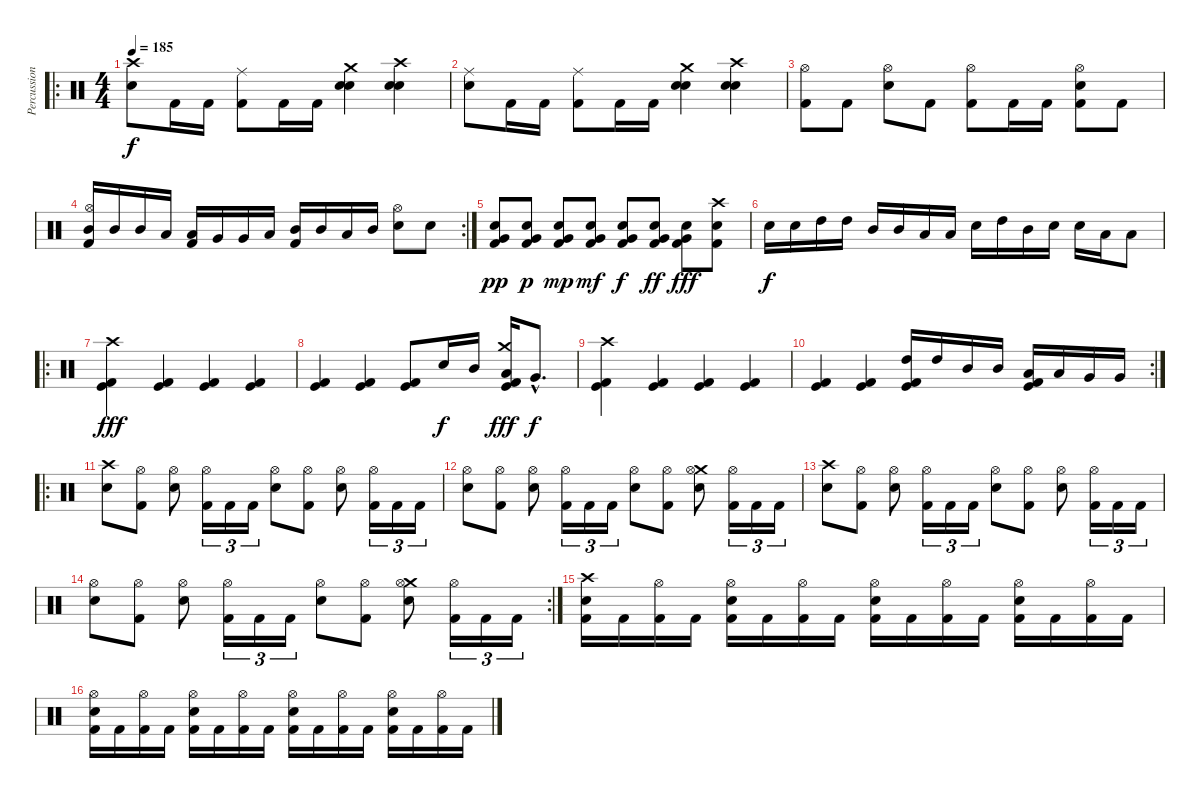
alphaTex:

\track ("Percussion" "Percussion") {instrument percussion}
\staff {score}
\articulation defaults
\ro
\ts (4 4)
\tempo 185
\clef neutral
\ks c
("Crash high (hit)" "Electric Snare (hit)").8{dy f} "Kick (hit) 2".16 "Kick (hit) 2".16 ("Ride (middle)" "Kick (hit) 2").8 "Kick (hit) 2".16 "Kick (hit) 2".16 ("Crash medium (hit)" "Electric Snare (hit)" "Snare (hit) 2").4 ("Crash high (hit)" "Electric Snare (hit)" "Snare (hit) 2").4 |
("Ride (middle)" "Electric Snare (hit)").8 "Kick (hit) 2".16 "Kick (hit) 2".16 ("Ride (middle)" "Kick (hit) 2").8 "Kick (hit) 2".16 "Kick (hit) 2".16 ("Crash medium (hit)" "Electric Snare (hit)" "Snare (hit) 2").4 ("Crash high (hit)" "Electric Snare (hit)" "Snare (hit) 2").4 |
("Hi-Hat (open)" "Kick (hit) 2").8 "Kick (hit) 2".8 ("Hi-Hat (open)" "Electric Snare (hit)").8 "Kick (hit) 2".8 ("Hi-Hat (open)" "Kick (hit) 2").8 "Kick (hit) 2".16 "Kick (hit) 2".16 ("Hi-Hat (open)" "Electric Snare (hit)" "Kick (hit) 2").8 "Kick (hit) 2".8 |
\rc 2
("Hi-Hat (open)" "Mid Tom (hit)" "Kick (hit) 2").16 "Mid Tom (hit)".16 "Mid Tom (hit)".16 "Low Tom (hit)".16 ("Low Tom (hit)" "Kick (hit) 2").16 "Very Low Tom (hit)".16 "Very Low Tom (hit)".16 "Low Tom (hit)".16 ("Mid Tom (hit)" "Kick (hit) 2").16 "Mid Tom (hit)".16 "Low Tom (hit)".16 "Mid Tom (hit)".16 ("Hi-Hat (open)" "Electric Snare (hit)").8 "Electric Snare (hit)".8 |
("Very Low Tom (hit)" "Electric Snare (hit)" "Kick (hit) 2").8{dy pp} ("Very Low Tom (hit)" "Electric Snare (hit)" "Kick (hit) 2").8{dy p} ("Very Low Tom (hit)" "Electric Snare (hit)" "Kick (hit) 2").8{dy mp} ("Very Low Tom (hit)" "Electric Snare (hit)" "Kick (hit) 2").8{dy mf} ("Very Low Tom (hit)" "Electric Snare (hit)" "Kick (hit) 2").8{dy f} ("Very Low Tom (hit)" "Electric Snare (hit)" "Kick (hit) 2").8{dy ff} ("Very Low Tom (hit)" "Electric Snare (hit)" "Kick (hit) 2").8{dy fff} ("Crash high (hit)" "Electric Snare (hit)" "Kick (hit) 2").8 |
"Electric Snare (hit)".16{dy f} "Electric Snare (hit)".16 "High Tom (hit)".16 "High Tom (hit)".16 "Mid Tom (hit)".16 "Mid Tom (hit)".16 "Low Tom (hit)".16 "Low Tom (hit)".16 "Electric Snare (hit)".16 "High Tom (hit)".16 "Mid Tom (hit)".16 "Electric Snare (hit)".16 "Electric Snare (hit)".16 "Low Tom (hit)".16 "Low Tom (hit)".8 |
\ro
("Crash high (hit)" "Kick (hit)" "Kick (hit) 2").4{dy fff} ("Kick (hit)" "Kick (hit) 2").4 ("Kick (hit)" "Kick (hit) 2").4 ("Kick (hit)" "Kick (hit) 2").4 |
("Kick (hit)" "Kick (hit) 2").4 ("Kick (hit)" "Kick (hit) 2").4 ("Kick (hit)" "Kick (hit) 2").8 "Electric Snare (hit)".16{dy f} "Mid Tom (hit)".16 ("Crash medium (hit)" "Kick (hit)" "Low Tom (hit)" "Kick (hit) 2").16{dy fff} "Very Low Tom (hit)"{hac}.8{d dy f} |
("Crash high (hit)" "Kick (hit)" "Kick (hit) 2").4 ("Kick (hit)" "Kick (hit) 2").4 ("Kick (hit)" "Kick (hit) 2").4 ("Kick (hit) 2" "Kick (hit)").4 |
\rc 2
("Kick (hit)" "Kick (hit) 2").4 ("Kick (hit)" "Kick (hit) 2").4 ("Kick (hit)" "High Tom (hit)" "Kick (hit) 2").16 "High Tom (hit)".16 "Mid Tom (hit)".16 "Mid Tom (hit)".16 ("Kick (hit)" "Low Tom (hit)" "Kick (hit) 2").16 "Low Tom (hit)".16 "Very Low Tom (hit)".16 "Very Low Tom (hit)".16 |
\ro
("Crash high (hit)" "Electric Snare (hit)").8 ("Hi-Hat (open)" "Kick (hit) 2").8 ("Hi-Hat (open)" "Electric Snare (hit)").8 ("Hi-Hat (open)" "Kick (hit) 2").16{tu (3 2)} "Kick (hit) 2".16{tu (3 2)} "Kick (hit) 2".16{tu (3 2)} ("Hi-Hat (open)" "Electric Snare (hit)").8 ("Hi-Hat (open)" "Kick (hit) 2").8 ("Hi-Hat (open)" "Electric Snare (hit)").8 ("Hi-Hat (open)" "Kick (hit) 2").16{tu (3 2)} "Kick (hit) 2".16{tu (3 2)} "Kick (hit) 2".16{tu (3 2)} |
("Hi-Hat (open)" "Electric Snare (hit)").8 ("Hi-Hat (open)" "Kick (hit) 2").8 ("Hi-Hat (open)" "Electric Snare (hit)").8 ("Hi-Hat (open)" "Kick (hit) 2").16{tu (3 2)} "Kick (hit) 2".16{tu (3 2)} "Kick (hit) 2".16{tu (3 2)} ("Hi-Hat (open)" "Electric Snare (hit)").8 ("Hi-Hat (open)" "Kick (hit) 2").8 ("Crash medium (hit)" "Hi-Hat (open)" "Electric Snare (hit)").8 ("Hi-Hat (open)" "Kick (hit) 2").16{tu (3 2)} "Kick (hit) 2".16{tu (3 2)} "Kick (hit) 2".16{tu (3 2)} |
("Crash high (hit)" "Electric Snare (hit)").8 ("Hi-Hat (open)" "Kick (hit) 2").8 ("Hi-Hat (open)" "Electric Snare (hit)").8 ("Hi-Hat (open)" "Kick (hit) 2").16{tu (3 2)} "Kick (hit) 2".16{tu (3 2)} "Kick (hit) 2".16{tu (3 2)} ("Hi-Hat (open)" "Electric Snare (hit)").8 ("Hi-Hat (open)" "Kick (hit) 2").8 ("Hi-Hat (open)" "Electric Snare (hit)").8 ("Hi-Hat (open)" "Kick (hit) 2").16{tu (3 2)} "Kick (hit) 2".16{tu (3 2)} "Kick (hit) 2".16{tu (3 2)} |
\rc 2
("Hi-Hat (open)" "Electric Snare (hit)").8 ("Hi-Hat (open)" "Kick (hit) 2").8 ("Hi-Hat (open)" "Electric Snare (hit)").8 ("Hi-Hat (open)" "Kick (hit) 2").16{tu (3 2)} "Kick (hit) 2".16{tu (3 2)} "Kick (hit) 2".16{tu (3 2)} ("Hi-Hat (open)" "Electric Snare (hit)").8 ("Hi-Hat (open)" "Kick (hit) 2").8 ("Crash medium (hit)" "Hi-Hat (open)" "Electric Snare (hit)").8 ("Hi-Hat (open)" "Kick (hit) 2").16{tu (3 2)} "Kick (hit) 2".16{tu (3 2)} "Kick (hit) 2".16{tu (3 2)} |
("Crash high (hit)" "Electric Snare (hit)" "Kick (hit) 2").16 "Kick (hit) 2".16 ("Hi-Hat (open)" "Kick (hit) 2").16 "Kick (hit) 2".16 ("Hi-Hat (open)" "Electric Snare (hit)" "Kick (hit) 2").16 "Kick (hit) 2".16 ("Hi-Hat (open)" "Kick (hit) 2").16 "Kick (hit) 2".16 ("Hi-Hat (open)" "Electric Snare (hit)" "Kick (hit) 2").16 "Kick (hit) 2".16 ("Hi-Hat (open)" "Kick (hit) 2").16 "Kick (hit) 2".16 ("Hi-Hat (open)" "Electric Snare (hit)" "Kick (hit) 2").16 "Kick (hit) 2".16 ("Hi-Hat (open)" "Kick (hit) 2").16 "Kick (hit) 2".16 |
("Hi-Hat (open)" "Electric Snare (hit)" "Kick (hit) 2").16 "Kick (hit) 2".16 ("Hi-Hat (open)" "Kick (hit) 2").16 "Kick (hit) 2".16 ("Hi-Hat (open)" "Electric Snare (hit)" "Kick (hit) 2").16 "Kick (hit) 2".16 ("Hi-Hat (open)" "Kick (hit) 2").16 "Kick (hit) 2".16 ("Hi-Hat (open)" "Electric Snare (hit)" "Kick (hit) 2").16 "Kick (hit) 2".16 ("Hi-Hat (open)" "Kick (hit) 2").16 "Kick (hit) 2".16 ("Hi-Hat (open)" "Electric Snare (hit)" "Kick (hit) 2").16 "Kick (hit) 2".16 ("Hi-Hat (open)" "Kick (hit) 2").16 "Kick (hit) 2".16
